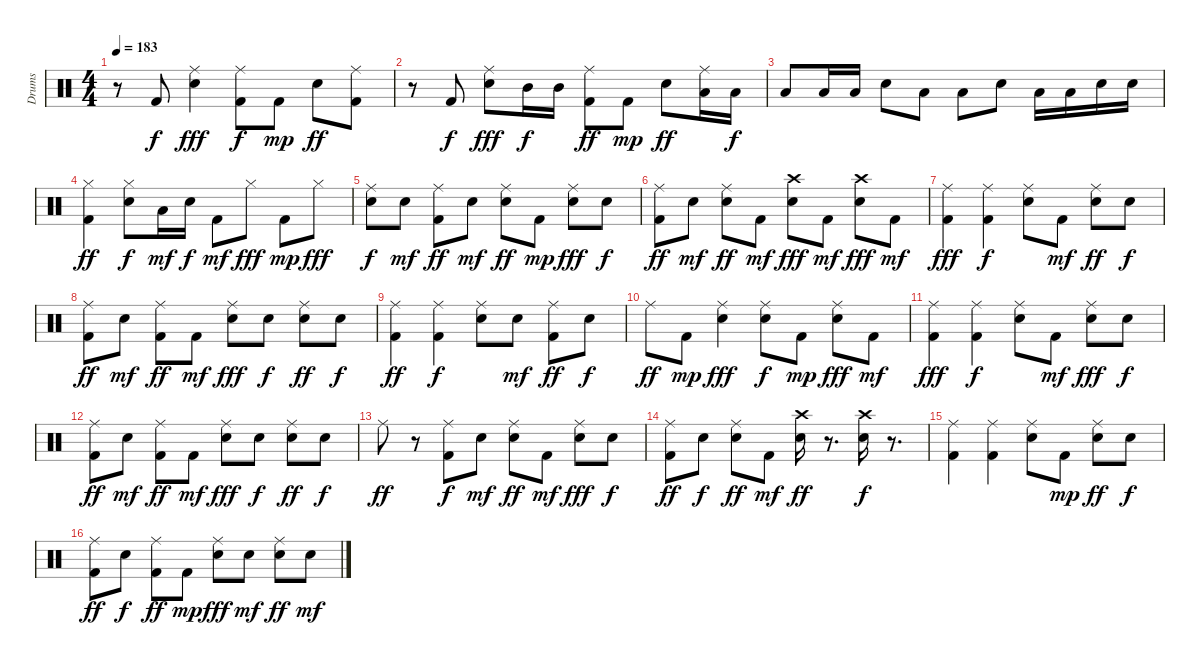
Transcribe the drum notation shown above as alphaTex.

\track ("Drums" "Drums") {instrument percussion}
\staff {score}
\articulation defaults
\ts (4 4)
\tempo 183
\clef neutral
\ks c
r.8{dy ff} "Kick (hit) 2".8{dy f} ("Snare (hit) 2" "Ride (middle)").4{dy fff} ("Kick (hit) 2" "Ride (middle)").8{dy f} "Kick (hit) 2".8{dy mp} "Snare (hit) 2".8{dy ff} ("Kick (hit) 2" "Ride (middle)").8 |
r.8 "Kick (hit) 2".8{dy f} ("Snare (hit) 2" "Ride (middle)").8{dy fff} "Mid Tom (hit)".16{dy f} "Mid Tom (hit)".16 ("Kick (hit) 2" "Ride (middle)").8{dy ff} "Kick (hit) 2".8{dy mp} "Snare (hit) 2".8{dy ff} ("Low Tom (hit)" "Ride (middle)").16 "Low Tom (hit)".16{dy f} |
"Low Tom (hit)".8 "Low Tom (hit)".16 "Low Tom (hit)".16 "Snare (hit) 2".8 "Low Tom (hit)".8 "Low Tom (hit)".8 "Snare (hit) 2".8 "Low Tom (hit)".16 "Low Tom (hit)".16 "Snare (hit) 2".16 "Snare (hit) 2".16 |
("Kick (hit) 2" "Hi-Hat (closed)").4{dy ff} ("Snare (hit) 2" "Hi-Hat (closed)").8{dy f} "Low Tom (hit)".16{dy mf} "Snare (hit) 2".16{dy f} "Kick (hit) 2".8{dy mf} "Hi-Hat (closed)".8{dy fff} "Kick (hit) 2".8{dy mp} "Hi-Hat (closed)".8{dy fff} |
("Snare (hit) 2" "Ride (middle)").8{dy f} "Snare (hit) 2".8{dy mf} ("Kick (hit) 2" "Ride (middle)").8{dy ff} "Snare (hit) 2".8{dy mf} ("Snare (hit) 2" "Ride (middle)").8{dy ff} "Kick (hit) 2".8{dy mp} ("Snare (hit) 2" "Ride (middle)").8{dy fff} "Snare (hit) 2".8{dy f} |
("Kick (hit) 2" "Ride (middle)").8{dy ff} "Snare (hit) 2".8{dy mf} ("Snare (hit) 2" "Ride (middle)").8{dy ff} "Kick (hit) 2".8{dy mf} ("Snare (hit) 2" "Crash high (hit)").8{dy fff} "Kick (hit) 2".8{dy mf} ("Snare (hit) 2" "Crash high (hit)").8{dy fff} "Kick (hit) 2".8{dy mf} |
("Kick (hit) 2" "Ride (middle)").4{dy fff} ("Kick (hit) 2" "Ride (middle)").4{dy f} ("Snare (hit) 2" "Ride (middle)").8 "Kick (hit) 2".8{dy mf} ("Snare (hit) 2" "Ride (middle)").8{dy ff} "Snare (hit) 2".8{dy f} |
("Kick (hit) 2" "Ride (middle)").8{dy ff} "Snare (hit) 2".8{dy mf} ("Kick (hit) 2" "Ride (middle)").8{dy ff} "Kick (hit) 2".8{dy mf} ("Snare (hit) 2" "Ride (middle)").8{dy fff} "Snare (hit) 2".8{dy f} ("Snare (hit) 2" "Ride (middle)").8{dy ff} "Snare (hit) 2".8{dy f} |
("Kick (hit) 2" "Ride (middle)").4{dy ff} ("Kick (hit) 2" "Ride (middle)").4{dy f} ("Snare (hit) 2" "Ride (middle)").8 "Snare (hit) 2".8{dy mf} ("Kick (hit) 2" "Ride (middle)").8{dy ff} "Snare (hit) 2".8{dy f} |
"Ride (middle)".8{dy ff} "Kick (hit) 2".8{dy mp} ("Snare (hit) 2" "Ride (middle)").4{dy fff} ("Snare (hit) 2" "Ride (middle)").8{dy f} "Kick (hit) 2".8{dy mp} ("Snare (hit) 2" "Ride (middle)").8{dy fff} "Kick (hit) 2".8{dy mf} |
("Kick (hit) 2" "Ride (middle)").4{dy fff} ("Kick (hit) 2" "Ride (middle)").4{dy f} ("Snare (hit) 2" "Ride (middle)").8 "Kick (hit) 2".8{dy mf} ("Snare (hit) 2" "Ride (middle)").8{dy fff} "Snare (hit) 2".8{dy f} |
("Kick (hit) 2" "Ride (middle)").8{dy ff} "Snare (hit) 2".8{dy mf} ("Kick (hit) 2" "Ride (middle)").8{dy ff} "Kick (hit) 2".8{dy mf} ("Snare (hit) 2" "Ride (middle)").8{dy fff} "Snare (hit) 2".8{dy f} ("Snare (hit) 2" "Ride (middle)").8{dy ff} "Snare (hit) 2".8{dy f} |
"Ride (middle)".8{dy ff} r.8 ("Kick (hit) 2" "Ride (middle)").8{dy f} "Snare (hit) 2".8{dy mf} ("Snare (hit) 2" "Ride (middle)").8{dy ff} "Kick (hit) 2".8{dy mf} ("Snare (hit) 2" "Ride (middle)").8{dy fff} "Snare (hit) 2".8{dy f} |
("Kick (hit) 2" "Ride (middle)").8{dy ff} "Snare (hit) 2".8{dy f} ("Snare (hit) 2" "Ride (middle)").8{dy ff} "Kick (hit) 2".8{dy mf} ("Snare (hit) 2" "Crash high (hit)").16{dy ff} r.8{d} ("Snare (hit) 2" "Crash high (hit)").16{dy f} r.8{d} |
("Kick (hit) 2" "Ride (middle)").4 ("Kick (hit) 2" "Ride (middle)").4 ("Snare (hit) 2" "Ride (middle)").8 "Kick (hit) 2".8{dy mp} ("Snare (hit) 2" "Ride (middle)").8{dy ff} "Snare (hit) 2".8{dy f} |
("Kick (hit) 2" "Ride (middle)").8{dy ff} "Snare (hit) 2".8{dy f} ("Kick (hit) 2" "Ride (middle)").8{dy ff} "Kick (hit) 2".8{dy mp} ("Snare (hit) 2" "Ride (middle)").8{dy fff} "Snare (hit) 2".8{dy mf} ("Snare (hit) 2" "Ride (middle)").8{dy ff} "Snare (hit) 2".8{dy mf}
